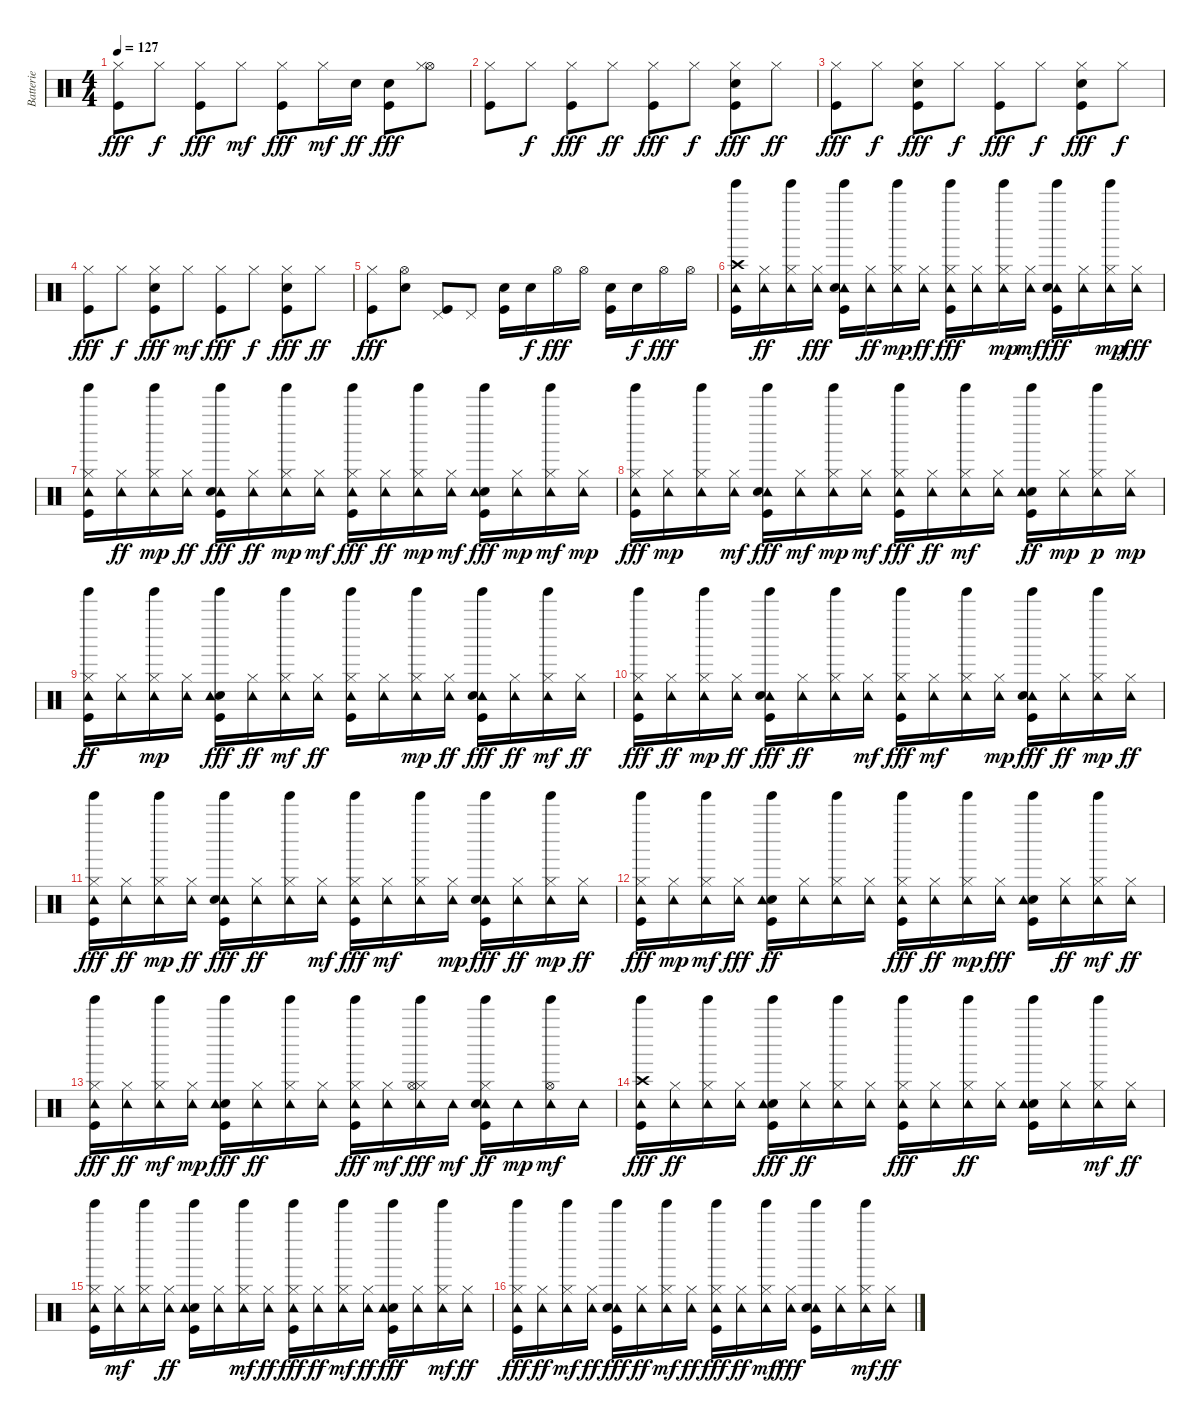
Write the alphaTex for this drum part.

\track ("Batterie" "Batterie") {instrument percussion}
\staff {score}
\articulation defaults
\ts (4 4)
\tempo 127
\clef neutral
\ks c
("Kick (hit)" "Hi-Hat (closed)").8{dy fff} "Hi-Hat (closed)".8{dy f} ("Kick (hit)" "Hi-Hat (closed)").8{dy fff} "Hi-Hat (closed)".8{dy mf} ("Hi-Hat (closed)" "Kick (hit)").8{dy fff} "Hi-Hat (closed)".16{dy mf} "Snare (hit) 2".16{dy ff} ("Snare (hit) 2" "Kick (hit)").8{dy fff} ("Hi-Hat (open)" "Hi-Hat (closed)").8 |
("Kick (hit)" "Hi-Hat (closed)").8 "Hi-Hat (closed)".8{dy f} ("Kick (hit)" "Hi-Hat (closed)").8{dy fff} "Hi-Hat (closed)".8{dy ff} ("Kick (hit)" "Hi-Hat (closed)").8{dy fff} "Hi-Hat (closed)".8{dy f} ("Kick (hit)" "Snare (hit) 2" "Hi-Hat (closed)").8{dy fff} "Hi-Hat (closed)".8{dy ff} |
("Kick (hit)" "Hi-Hat (closed)").8{dy fff} "Hi-Hat (closed)".8{dy f} ("Kick (hit)" "Snare (hit) 2" "Hi-Hat (closed)").8{dy fff} "Hi-Hat (closed)".8{dy f} ("Kick (hit)" "Hi-Hat (closed)").8{dy fff} "Hi-Hat (closed)".8{dy f} ("Kick (hit)" "Snare (hit) 2" "Hi-Hat (closed)").8{dy fff} "Hi-Hat (closed)".8{dy f} |
("Kick (hit)" "Hi-Hat (closed)").8{dy fff} "Hi-Hat (closed)".8{dy f} ("Kick (hit)" "Snare (hit) 2" "Hi-Hat (closed)").8{dy fff} "Hi-Hat (closed)".8{dy mf} ("Kick (hit)" "Hi-Hat (closed)").8{dy fff} "Hi-Hat (closed)".8{dy f} ("Kick (hit)" "Snare (hit) 2" "Hi-Hat (closed)").8{dy fff} "Hi-Hat (closed)".8{dy ff} |
("Kick (hit)" "Hi-Hat (closed)").8{dy fff} ("Snare (hit) 2" "Hi-Hat (open)").8 ("Pedal Hi-Hat (hit)" "Kick (hit)").8 "Pedal Hi-Hat (hit)".8 ("Snare (hit) 2" "Kick (hit)").16 "Snare (hit) 2".16{dy f} "Hi-Hat (open)".16{dy fff} "Hi-Hat (open)".16 ("Snare (hit) 2" "Kick (hit)").16 "Snare (hit) 2".16{dy f} "Hi-Hat (open)".16{dy fff} "Hi-Hat (open)".16 |
("Crash high (hit)" "Tinkle Bell (hit)" "Tambourine (hit)" "Kick (hit)").16 ("Tambourine (hit)" "Hi-Hat (closed)").16{dy ff} ("Tinkle Bell (hit)" "Tambourine (hit)" "Hi-Hat (closed)").16 ("Tambourine (hit)" "Hi-Hat (closed)").16{dy fff} ("Tambourine (hit)" "Kick (hit)" "Snare (hit) 2" "Tinkle Bell (hit)").16 ("Tambourine (hit)" "Hi-Hat (closed)").16{dy ff} ("Hi-Hat (closed)" "Tambourine (hit)" "Tinkle Bell (hit)").16{dy mp} ("Tambourine (hit)" "Hi-Hat (closed)").16{dy ff} ("Kick (hit)" "Tambourine (hit)" "Tinkle Bell (hit)" "Hi-Hat (closed)").16{dy fff} ("Tambourine (hit)" "Hi-Hat (closed)").16 ("Hi-Hat (closed)" "Tambourine (hit)" "Tinkle Bell (hit)").16{dy mp} ("Hi-Hat (closed)" "Tambourine (hit)").16{dy mf} ("Tinkle Bell (hit)" "Tambourine (hit)" "Kick (hit)" "Snare (hit) 2").16{dy fff} ("Tambourine (hit)" "Hi-Hat (closed)").16 ("Hi-Hat (closed)" "Tambourine (hit)" "Tinkle Bell (hit)").16{dy mp} ("Tambourine (hit)" "Hi-Hat (closed)").16{dy fff} |
("Tambourine (hit)" "Kick (hit)" "Hi-Hat (closed)" "Tinkle Bell (hit)").16 ("Tambourine (hit)" "Hi-Hat (closed)").16{dy ff} ("Hi-Hat (closed)" "Tambourine (hit)" "Tinkle Bell (hit)").16{dy mp} ("Tambourine (hit)" "Hi-Hat (closed)").16{dy ff} ("Tambourine (hit)" "Tinkle Bell (hit)" "Kick (hit)" "Snare (hit) 2").16{dy fff} ("Tambourine (hit)" "Hi-Hat (closed)").16{dy ff} ("Tinkle Bell (hit)" "Hi-Hat (closed)" "Tambourine (hit)").16{dy mp} ("Hi-Hat (closed)" "Tambourine (hit)").16{dy mf} ("Tinkle Bell (hit)" "Tambourine (hit)" "Kick (hit)" "Hi-Hat (closed)").16{dy fff} ("Tambourine (hit)" "Hi-Hat (closed)").16{dy ff} ("Tinkle Bell (hit)" "Hi-Hat (closed)" "Tambourine (hit)").16{dy mp} ("Hi-Hat (closed)" "Tambourine (hit)").16{dy mf} ("Tinkle Bell (hit)" "Snare (hit) 2" "Kick (hit)" "Tambourine (hit)").16{dy fff} ("Hi-Hat (closed)" "Tambourine (hit)").16{dy mp} ("Hi-Hat (closed)" "Tinkle Bell (hit)" "Tambourine (hit)").16{dy mf} ("Hi-Hat (closed)" "Tambourine (hit)").16{dy mp} |
("Hi-Hat (closed)" "Tinkle Bell (hit)" "Tambourine (hit)" "Kick (hit)").16{dy fff} ("Tambourine (hit)" "Hi-Hat (closed)").16{dy mp} ("Hi-Hat (closed)" "Tinkle Bell (hit)" "Tambourine (hit)").16 ("Hi-Hat (closed)" "Tambourine (hit)").16{dy mf} ("Tinkle Bell (hit)" "Kick (hit)" "Tambourine (hit)" "Snare (hit) 2").16{dy fff} ("Hi-Hat (closed)" "Tambourine (hit)").16{dy mf} ("Tinkle Bell (hit)" "Tambourine (hit)" "Hi-Hat (closed)").16{dy mp} ("Hi-Hat (closed)" "Tambourine (hit)").16{dy mf} ("Tinkle Bell (hit)" "Kick (hit)" "Hi-Hat (closed)" "Tambourine (hit)").16{dy fff} ("Tambourine (hit)" "Hi-Hat (closed)").16{dy ff} ("Tinkle Bell (hit)" "Hi-Hat (closed)" "Tambourine (hit)").16{dy mf} ("Hi-Hat (closed)" "Tambourine (hit)").16 ("Tinkle Bell (hit)" "Kick (hit)" "Snare (hit) 2" "Tambourine (hit)").16{dy ff} ("Hi-Hat (closed)" "Tambourine (hit)").16{dy mp} ("Tinkle Bell (hit)" "Hi-Hat (closed)" "Tambourine (hit)").16{dy p} ("Hi-Hat (closed)" "Tambourine (hit)").16{dy mp} |
("Kick (hit)" "Hi-Hat (closed)" "Tambourine (hit)" "Tinkle Bell (hit)").16{dy ff} ("Tambourine (hit)" "Hi-Hat (closed)").16 ("Hi-Hat (closed)" "Tambourine (hit)" "Tinkle Bell (hit)").16{dy mp} ("Hi-Hat (closed)" "Tambourine (hit)").16 ("Tinkle Bell (hit)" "Snare (hit) 2" "Tambourine (hit)" "Kick (hit)").16{dy fff} ("Tambourine (hit)" "Hi-Hat (closed)").16{dy ff} ("Tinkle Bell (hit)" "Tambourine (hit)" "Hi-Hat (closed)").16{dy mf} ("Tambourine (hit)" "Hi-Hat (closed)").16{dy ff} ("Tinkle Bell (hit)" "Hi-Hat (closed)" "Kick (hit)" "Tambourine (hit)").16 ("Tambourine (hit)" "Hi-Hat (closed)").16 ("Tinkle Bell (hit)" "Hi-Hat (closed)" "Tambourine (hit)").16{dy mp} ("Tambourine (hit)" "Hi-Hat (closed)").16{dy ff} ("Tinkle Bell (hit)" "Tambourine (hit)" "Kick (hit)" "Snare (hit) 2").16{dy fff} ("Tambourine (hit)" "Hi-Hat (closed)").16{dy ff} ("Tinkle Bell (hit)" "Tambourine (hit)" "Hi-Hat (closed)").16{dy mf} ("Tambourine (hit)" "Hi-Hat (closed)").16{dy ff} |
("Tinkle Bell (hit)" "Hi-Hat (closed)" "Tambourine (hit)" "Kick (hit)").16{dy fff} ("Tambourine (hit)" "Hi-Hat (closed)").16{dy ff} ("Tambourine (hit)" "Tinkle Bell (hit)" "Hi-Hat (closed)").16{dy mp} ("Tambourine (hit)" "Hi-Hat (closed)").16{dy ff} ("Tinkle Bell (hit)" "Kick (hit)" "Tambourine (hit)" "Snare (hit) 2").16{dy fff} ("Tambourine (hit)" "Hi-Hat (closed)").16{dy ff} ("Tinkle Bell (hit)" "Tambourine (hit)" "Hi-Hat (closed)").16 ("Tambourine (hit)" "Hi-Hat (closed)").16{dy mf} ("Tinkle Bell (hit)" "Hi-Hat (closed)" "Tambourine (hit)" "Kick (hit)").16{dy fff} ("Tambourine (hit)" "Hi-Hat (closed)").16{dy mf} ("Tinkle Bell (hit)" "Hi-Hat (closed)" "Tambourine (hit)").16 ("Tambourine (hit)" "Hi-Hat (closed)").16{dy mp} ("Tinkle Bell (hit)" "Kick (hit)" "Tambourine (hit)" "Snare (hit) 2").16{dy fff} ("Tambourine (hit)" "Hi-Hat (closed)").16{dy ff} ("Tinkle Bell (hit)" "Tambourine (hit)" "Hi-Hat (closed)").16{dy mp} ("Tambourine (hit)" "Hi-Hat (closed)").16{dy ff} |
("Tinkle Bell (hit)" "Hi-Hat (closed)" "Tambourine (hit)" "Kick (hit)").16{dy fff} ("Tambourine (hit)" "Hi-Hat (closed)").16{dy ff} ("Tambourine (hit)" "Tinkle Bell (hit)" "Hi-Hat (closed)").16{dy mp} ("Tambourine (hit)" "Hi-Hat (closed)").16{dy ff} ("Tinkle Bell (hit)" "Kick (hit)" "Tambourine (hit)" "Snare (hit) 2").16{dy fff} ("Tambourine (hit)" "Hi-Hat (closed)").16{dy ff} ("Tinkle Bell (hit)" "Tambourine (hit)" "Hi-Hat (closed)").16 ("Tambourine (hit)" "Hi-Hat (closed)").16{dy mf} ("Tinkle Bell (hit)" "Hi-Hat (closed)" "Tambourine (hit)" "Kick (hit)").16{dy fff} ("Tambourine (hit)" "Hi-Hat (closed)").16{dy mf} ("Tinkle Bell (hit)" "Hi-Hat (closed)" "Tambourine (hit)").16 ("Tambourine (hit)" "Hi-Hat (closed)").16{dy mp} ("Tinkle Bell (hit)" "Kick (hit)" "Tambourine (hit)" "Snare (hit) 2").16{dy fff} ("Tambourine (hit)" "Hi-Hat (closed)").16{dy ff} ("Tinkle Bell (hit)" "Tambourine (hit)" "Hi-Hat (closed)").16{dy mp} ("Tambourine (hit)" "Hi-Hat (closed)").16{dy ff} |
("Tambourine (hit)" "Tinkle Bell (hit)" "Kick (hit)" "Hi-Hat (closed)").16{dy fff} ("Tambourine (hit)" "Hi-Hat (closed)").16{dy mp} ("Tinkle Bell (hit)" "Hi-Hat (closed)" "Tambourine (hit)").16{dy mf} ("Tambourine (hit)" "Hi-Hat (closed)").16{dy fff} ("Tinkle Bell (hit)" "Kick (hit)" "Snare (hit) 2" "Tambourine (hit)").16{dy ff} ("Tambourine (hit)" "Hi-Hat (closed)").16 ("Tinkle Bell (hit)" "Tambourine (hit)" "Hi-Hat (closed)").16 ("Tambourine (hit)" "Hi-Hat (closed)").16 ("Tinkle Bell (hit)" "Tambourine (hit)" "Kick (hit)" "Hi-Hat (closed)").16{dy fff} ("Tambourine (hit)" "Hi-Hat (closed)").16{dy ff} ("Tinkle Bell (hit)" "Tambourine (hit)" "Hi-Hat (closed)").16{dy mp} ("Tambourine (hit)" "Hi-Hat (closed)").16{dy fff} ("Snare (hit) 2" "Tinkle Bell (hit)" "Tambourine (hit)" "Kick (hit)").16 ("Tambourine (hit)" "Hi-Hat (closed)").16{dy ff} ("Tambourine (hit)" "Tinkle Bell (hit)" "Hi-Hat (closed)").16{dy mf} ("Tambourine (hit)" "Hi-Hat (closed)").16{dy ff} |
("Tinkle Bell (hit)" "Hi-Hat (closed)" "Tambourine (hit)" "Kick (hit)").16{dy fff} ("Tambourine (hit)" "Hi-Hat (closed)").16{dy ff} ("Tambourine (hit)" "Tinkle Bell (hit)" "Hi-Hat (closed)").16{dy mf} ("Hi-Hat (closed)" "Tambourine (hit)").16{dy mp} ("Snare (hit) 2" "Tambourine (hit)" "Tinkle Bell (hit)" "Kick (hit)").16{dy fff} ("Tambourine (hit)" "Hi-Hat (closed)").16{dy ff} ("Tinkle Bell (hit)" "Tambourine (hit)" "Hi-Hat (closed)").16 ("Tambourine (hit)" "Hi-Hat (closed)").16 ("Tinkle Bell (hit)" "Hi-Hat (closed)" "Tambourine (hit)" "Kick (hit)").16{dy fff} ("Tambourine (hit)" "Hi-Hat (closed)").16{dy mf} ("Tambourine (hit)" "Tinkle Bell (hit)" "Hi-Hat (closed)" "Hi-Hat (open)").16{dy fff} "Tambourine (hit)".16{dy mf} ("Tinkle Bell (hit)" "Tambourine (hit)" "Kick (hit)" "Snare (hit) 2" "Hi-Hat (closed)").16{dy ff} "Tambourine (hit)".16{dy mp} ("Tinkle Bell (hit)" "Hi-Hat (open)" "Tambourine (hit)").16{dy mf} "Tambourine (hit)".16 |
("Crash high (hit)" "Tinkle Bell (hit)" "Tambourine (hit)" "Kick (hit)").16{dy fff} ("Tambourine (hit)" "Hi-Hat (closed)").16{dy ff} ("Tambourine (hit)" "Tinkle Bell (hit)" "Hi-Hat (closed)").16 ("Tambourine (hit)" "Hi-Hat (closed)").16 ("Tinkle Bell (hit)" "Snare (hit) 2" "Tambourine (hit)" "Kick (hit)").16{dy fff} ("Tambourine (hit)" "Hi-Hat (closed)").16{dy ff} ("Tambourine (hit)" "Tinkle Bell (hit)" "Hi-Hat (closed)").16 ("Tambourine (hit)" "Hi-Hat (closed)").16 ("Tambourine (hit)" "Tinkle Bell (hit)" "Kick (hit)" "Hi-Hat (closed)").16{dy fff} ("Tambourine (hit)" "Hi-Hat (closed)").16 ("Tinkle Bell (hit)" "Tambourine (hit)" "Hi-Hat (closed)").16{dy ff} ("Tambourine (hit)" "Hi-Hat (closed)").16 ("Tinkle Bell (hit)" "Kick (hit)" "Snare (hit) 2" "Tambourine (hit)").16 ("Tambourine (hit)" "Hi-Hat (closed)").16 ("Tinkle Bell (hit)" "Tambourine (hit)" "Hi-Hat (closed)").16{dy mf} ("Tambourine (hit)" "Hi-Hat (closed)").16{dy ff} |
("Tinkle Bell (hit)" "Kick (hit)" "Hi-Hat (closed)" "Tambourine (hit)").16 ("Tambourine (hit)" "Hi-Hat (closed)").16{dy mf} ("Hi-Hat (closed)" "Tinkle Bell (hit)" "Tambourine (hit)").16 ("Tambourine (hit)" "Hi-Hat (closed)").16{dy ff} ("Tinkle Bell (hit)" "Kick (hit)" "Snare (hit) 2" "Tambourine (hit)").16 ("Tambourine (hit)" "Hi-Hat (closed)").16 ("Tinkle Bell (hit)" "Tambourine (hit)" "Hi-Hat (closed)").16{dy mf} ("Tambourine (hit)" "Hi-Hat (closed)").16{dy ff} ("Tinkle Bell (hit)" "Hi-Hat (closed)" "Kick (hit)" "Tambourine (hit)").16{dy fff} ("Tambourine (hit)" "Hi-Hat (closed)").16{dy ff} ("Hi-Hat (closed)" "Tinkle Bell (hit)" "Tambourine (hit)").16{dy mf} ("Tambourine (hit)" "Hi-Hat (closed)").16{dy ff} ("Tinkle Bell (hit)" "Snare (hit) 2" "Tambourine (hit)" "Kick (hit)").16{dy fff} ("Tambourine (hit)" "Hi-Hat (closed)").16 ("Tinkle Bell (hit)" "Hi-Hat (closed)" "Tambourine (hit)").16{dy mf} ("Tambourine (hit)" "Hi-Hat (closed)").16{dy ff} |
("Hi-Hat (closed)" "Tambourine (hit)" "Tinkle Bell (hit)" "Kick (hit)").16{dy fff} ("Tambourine (hit)" "Hi-Hat (closed)").16{dy ff} ("Hi-Hat (closed)" "Tambourine (hit)" "Tinkle Bell (hit)").16{dy mf} ("Tambourine (hit)" "Hi-Hat (closed)").16{dy ff} ("Tambourine (hit)" "Kick (hit)" "Snare (hit) 2" "Tinkle Bell (hit)").16{dy fff} ("Tambourine (hit)" "Hi-Hat (closed)").16{dy ff} ("Tinkle Bell (hit)" "Tambourine (hit)" "Hi-Hat (closed)").16{dy mf} ("Tambourine (hit)" "Hi-Hat (closed)").16{dy ff} ("Tinkle Bell (hit)" "Hi-Hat (closed)" "Tambourine (hit)" "Kick (hit)").16{dy fff} ("Tambourine (hit)" "Hi-Hat (closed)").16{dy ff} ("Hi-Hat (closed)" "Tinkle Bell (hit)" "Tambourine (hit)").16{dy mf} ("Tambourine (hit)" "Hi-Hat (closed)").16{dy fff} ("Tinkle Bell (hit)" "Tambourine (hit)" "Kick (hit)" "Snare (hit) 2").16 ("Tambourine (hit)" "Hi-Hat (closed)").16 ("Tambourine (hit)" "Tinkle Bell (hit)" "Hi-Hat (closed)").16{dy mf} ("Tambourine (hit)" "Hi-Hat (closed)").16{dy ff}
